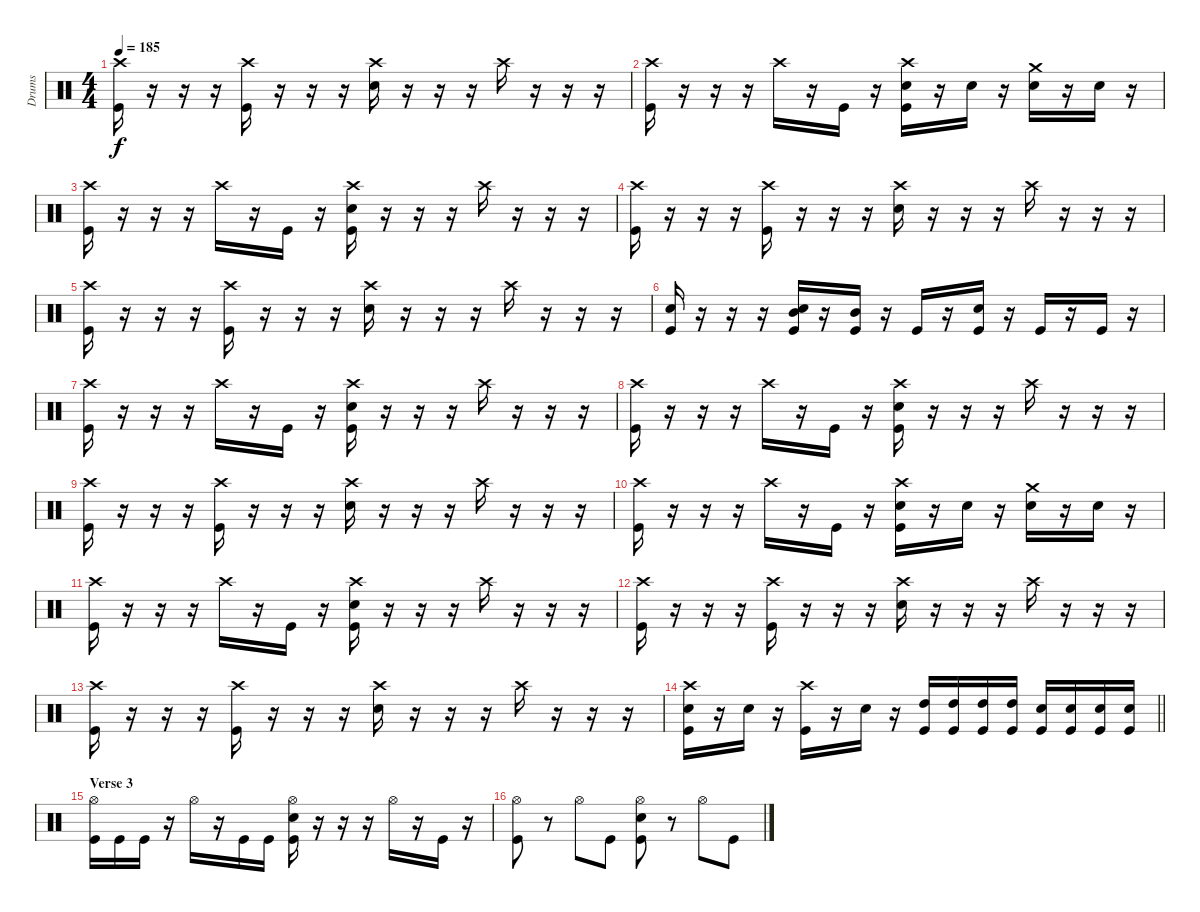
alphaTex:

\track ("Drums" "Drums") {instrument percussion}
\staff {score}
\articulation defaults
\ts (4 4)
\tempo 185
\clef neutral
\ks c
("Crash high (hit)" "Kick (hit)").16{dy f} r.16 r.16 r.16 ("Crash high (hit)" "Kick (hit)").16 r.16 r.16 r.16 ("Crash high (hit)" "Snare (hit) 2").16 r.16 r.16 r.16 "Crash high (hit)".16 r.16 r.16 r.16 |
("Crash high (hit)" "Kick (hit)").16 r.16 r.16 r.16 "Crash high (hit)".16 r.16 "Kick (hit)".16 r.16 ("Crash high (hit)" "Snare (hit) 2" "Kick (hit)").16 r.16 "Snare (hit) 2".16 r.16 ("Crash medium (hit)" "Snare (hit) 2").16 r.16 "Snare (hit) 2".16 r.16 |
("Crash high (hit)" "Kick (hit)").16 r.16 r.16 r.16 "Crash high (hit)".16 r.16 "Kick (hit)".16 r.16 ("Crash high (hit)" "Snare (hit) 2" "Kick (hit)").16 r.16 r.16 r.16 "Crash high (hit)".16 r.16 r.16 r.16 |
("Crash high (hit)" "Kick (hit)").16 r.16 r.16 r.16 ("Crash high (hit)" "Kick (hit)").16 r.16 r.16 r.16 ("Crash high (hit)" "Snare (hit) 2").16 r.16 r.16 r.16 "Crash high (hit)".16 r.16 r.16 r.16 |
("Crash high (hit)" "Kick (hit)").16 r.16 r.16 r.16 ("Crash high (hit)" "Kick (hit)").16 r.16 r.16 r.16 ("Crash high (hit)" "Snare (hit) 2").16 r.16 r.16 r.16 "Crash high (hit)".16 r.16 r.16 r.16 |
("Snare (hit) 2" "Kick (hit)").16 r.16 r.16 r.16 ("Snare (hit) 2" "Mid Tom (hit)" "Kick (hit)").16 r.16 ("Mid Tom (hit)" "Kick (hit)").16 r.16 "Kick (hit)".16 r.16 ("Snare (hit) 2" "Kick (hit)").16 r.16 "Kick (hit)".16 r.16 "Kick (hit)".16 r.16 |
("Crash high (hit)" "Kick (hit)").16 r.16 r.16 r.16 "Crash high (hit)".16 r.16 "Kick (hit)".16 r.16 ("Crash high (hit)" "Snare (hit) 2" "Kick (hit)").16 r.16 r.16 r.16 "Crash high (hit)".16 r.16 r.16 r.16 |
("Crash high (hit)" "Kick (hit)").16 r.16 r.16 r.16 "Crash high (hit)".16 r.16 "Kick (hit)".16 r.16 ("Crash high (hit)" "Snare (hit) 2" "Kick (hit)").16 r.16 r.16 r.16 "Crash high (hit)".16 r.16 r.16 r.16 |
("Crash high (hit)" "Kick (hit)").16 r.16 r.16 r.16 ("Crash high (hit)" "Kick (hit)").16 r.16 r.16 r.16 ("Crash high (hit)" "Snare (hit) 2").16 r.16 r.16 r.16 "Crash high (hit)".16 r.16 r.16 r.16 |
("Crash high (hit)" "Kick (hit)").16 r.16 r.16 r.16 "Crash high (hit)".16 r.16 "Kick (hit)".16 r.16 ("Crash high (hit)" "Snare (hit) 2" "Kick (hit)").16 r.16 "Snare (hit) 2".16 r.16 ("Crash medium (hit)" "Snare (hit) 2").16 r.16 "Snare (hit) 2".16 r.16 |
("Crash high (hit)" "Kick (hit)").16 r.16 r.16 r.16 "Crash high (hit)".16 r.16 "Kick (hit)".16 r.16 ("Crash high (hit)" "Snare (hit) 2" "Kick (hit)").16 r.16 r.16 r.16 "Crash high (hit)".16 r.16 r.16 r.16 |
("Crash high (hit)" "Kick (hit)").16 r.16 r.16 r.16 ("Crash high (hit)" "Kick (hit)").16 r.16 r.16 r.16 ("Crash high (hit)" "Snare (hit) 2").16 r.16 r.16 r.16 "Crash high (hit)".16 r.16 r.16 r.16 |
("Crash high (hit)" "Kick (hit)").16 r.16 r.16 r.16 ("Crash high (hit)" "Kick (hit)").16 r.16 r.16 r.16 ("Crash high (hit)" "Snare (hit) 2").16 r.16 r.16 r.16 "Crash high (hit)".16 r.16 r.16 r.16 |
\barLineRight lightlight
("Crash high (hit)" "Snare (hit) 2" "Kick (hit)").16 r.16 "Snare (hit) 2".16 r.16 ("Crash high (hit)" "Kick (hit)").16 r.16 "Snare (hit) 2".16 r.16 ("High Tom (hit)" "Kick (hit)").16 ("High Tom (hit)" "Kick (hit)").16 ("High Tom (hit)" "Kick (hit)").16 ("High Tom (hit)" "Kick (hit)").16 ("Snare (hit) 2" "Kick (hit)").16 ("Snare (hit) 2" "Kick (hit)").16 ("Snare (hit) 2" "Kick (hit)").16 ("Snare (hit) 2" "Kick (hit)").16 |
\section ("" "Verse 3")
("Hi-Hat (open)" "Kick (hit)").16 "Kick (hit)".16 "Kick (hit)".16 r.16 "Hi-Hat (open)".16 r.16 "Kick (hit)".16 "Kick (hit)".16 ("Hi-Hat (open)" "Snare (hit) 2" "Kick (hit)").16 r.16 r.16 r.16 "Hi-Hat (open)".16 r.16 "Kick (hit)".16 r.16 |
("Hi-Hat (open)" "Kick (hit)").8 r.8 "Hi-Hat (open)".8 "Kick (hit)".8 ("Hi-Hat (open)" "Snare (hit) 2" "Kick (hit)").8 r.8 "Hi-Hat (open)".8 "Kick (hit)".8
